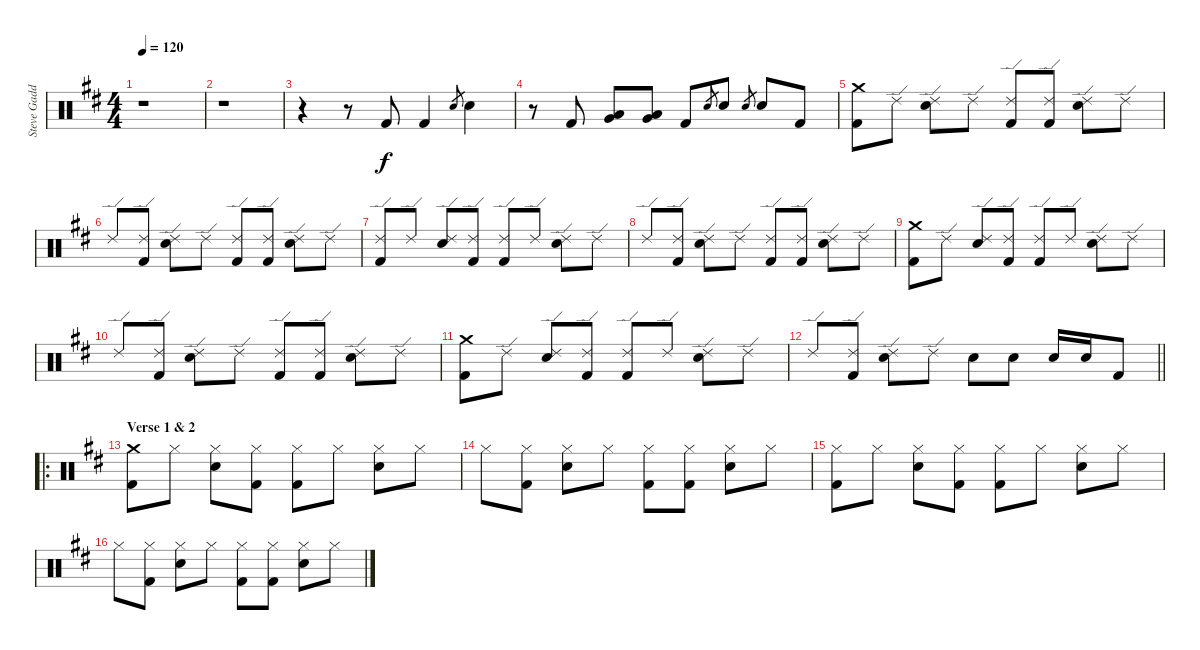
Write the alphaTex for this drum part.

\track ("Steve Gadd Drums" "Steve Gadd") {instrument percussion}
\staff {score}
\articulation defaults
\ts (4 4)
\tempo 120
\clef neutral
\ks d
r.1{dy f} |
r.1 |
r.4 r.8 "Kick (hit) 2".8 "Kick (hit) 2".4 "Snare (hit) 2".8{gr} "Snare (hit) 2".4 |
r.8 "Kick (hit) 2".8 ("Very Low Tom (hit)" "Low Tom (hit)").8 ("Very Low Tom (hit)" "Low Tom (hit)").8 "Kick (hit) 2".8 "Snare (hit) 2".8{gr} "Snare (hit) 2".8 "Snare (hit) 2".8{gr} "Snare (hit) 2".8 "Kick (hit) 2".8 |
("Crash medium (hit)" "Kick (hit) 2").8 "Ride (edge) 2".8 ("Ride (edge) 2" "Snare (hit) 2").8 "Ride (edge) 2".8 ("Ride (edge) 2" "Kick (hit) 2").8 ("Ride (edge) 2" "Kick (hit) 2").8 ("Ride (edge) 2" "Snare (hit) 2").8 "Ride (edge) 2".8 |
"Ride (edge) 2".8 ("Ride (edge) 2" "Kick (hit) 2").8 ("Ride (edge) 2" "Snare (hit) 2").8 "Ride (edge) 2".8 ("Ride (edge) 2" "Kick (hit) 2").8 ("Ride (edge) 2" "Kick (hit) 2").8 ("Ride (edge) 2" "Snare (hit) 2").8 "Ride (edge) 2".8 |
("Ride (edge) 2" "Kick (hit) 2").8 "Ride (edge) 2".8 ("Ride (edge) 2" "Snare (hit) 2").8 ("Ride (edge) 2" "Kick (hit) 2").8 ("Ride (edge) 2" "Kick (hit) 2").8 "Ride (edge) 2".8 ("Ride (edge) 2" "Snare (hit) 2").8 "Ride (edge) 2".8 |
"Ride (edge) 2".8 ("Ride (edge) 2" "Kick (hit) 2").8 ("Ride (edge) 2" "Snare (hit) 2").8 "Ride (edge) 2".8 ("Ride (edge) 2" "Kick (hit) 2").8 ("Ride (edge) 2" "Kick (hit) 2").8 ("Ride (edge) 2" "Snare (hit) 2").8 "Ride (edge) 2".8 |
("Crash medium (hit)" "Kick (hit) 2").8 "Ride (edge) 2".8 ("Ride (edge) 2" "Snare (hit) 2").8 ("Ride (edge) 2" "Kick (hit) 2").8 ("Ride (edge) 2" "Kick (hit) 2").8 "Ride (edge) 2".8 ("Ride (edge) 2" "Snare (hit) 2").8 "Ride (edge) 2".8 |
"Ride (edge) 2".8 ("Ride (edge) 2" "Kick (hit) 2").8 ("Ride (edge) 2" "Snare (hit) 2").8 "Ride (edge) 2".8 ("Ride (edge) 2" "Kick (hit) 2").8 ("Ride (edge) 2" "Kick (hit) 2").8 ("Ride (edge) 2" "Snare (hit) 2").8 "Ride (edge) 2".8 |
("Crash medium (hit)" "Kick (hit) 2").8 "Ride (edge) 2".8 ("Ride (edge) 2" "Snare (hit) 2").8 ("Ride (edge) 2" "Kick (hit) 2").8 ("Ride (edge) 2" "Kick (hit) 2").8 "Ride (edge) 2".8 ("Ride (edge) 2" "Snare (hit) 2").8 "Ride (edge) 2".8 |
\barLineRight lightlight "Ride (edge) 2".8
("Ride (edge) 2" "Kick (hit) 2").8 ("Ride (edge) 2" "Snare (hit) 2").8 "Ride (edge) 2".8 "Snare (hit) 2".8 "Snare (hit) 2".8 "Snare (hit) 2".16 "Snare (hit) 2".16 "Kick (hit) 2".8 |
\ro
\section ("" "Verse 1 & 2")
("Crash medium (hit)" "Kick (hit) 2").8 "Hi-Hat (closed)".8 ("Hi-Hat (closed)" "Snare (hit) 2").8 ("Hi-Hat (closed)" "Kick (hit) 2").8 ("Hi-Hat (closed)" "Kick (hit) 2").8 "Hi-Hat (closed)".8 ("Hi-Hat (closed)" "Snare (hit) 2").8 "Hi-Hat (closed)".8 |
"Hi-Hat (closed)".8 ("Hi-Hat (closed)" "Kick (hit) 2").8 ("Hi-Hat (closed)" "Snare (hit) 2").8 "Hi-Hat (closed)".8 ("Hi-Hat (closed)" "Kick (hit) 2").8 ("Hi-Hat (closed)" "Kick (hit) 2").8 ("Hi-Hat (closed)" "Snare (hit) 2").8 "Hi-Hat (closed)".8 |
("Hi-Hat (closed)" "Kick (hit) 2").8 "Hi-Hat (closed)".8 ("Hi-Hat (closed)" "Snare (hit) 2").8 ("Hi-Hat (closed)" "Kick (hit) 2").8 ("Hi-Hat (closed)" "Kick (hit) 2").8 "Hi-Hat (closed)".8 ("Hi-Hat (closed)" "Snare (hit) 2").8 "Hi-Hat (closed)".8 |
"Hi-Hat (closed)".8 ("Hi-Hat (closed)" "Kick (hit) 2").8 ("Hi-Hat (closed)" "Snare (hit) 2").8 "Hi-Hat (closed)".8 ("Hi-Hat (closed)" "Kick (hit) 2").8 ("Hi-Hat (closed)" "Kick (hit) 2").8 ("Hi-Hat (closed)" "Snare (hit) 2").8 "Hi-Hat (closed)".8
